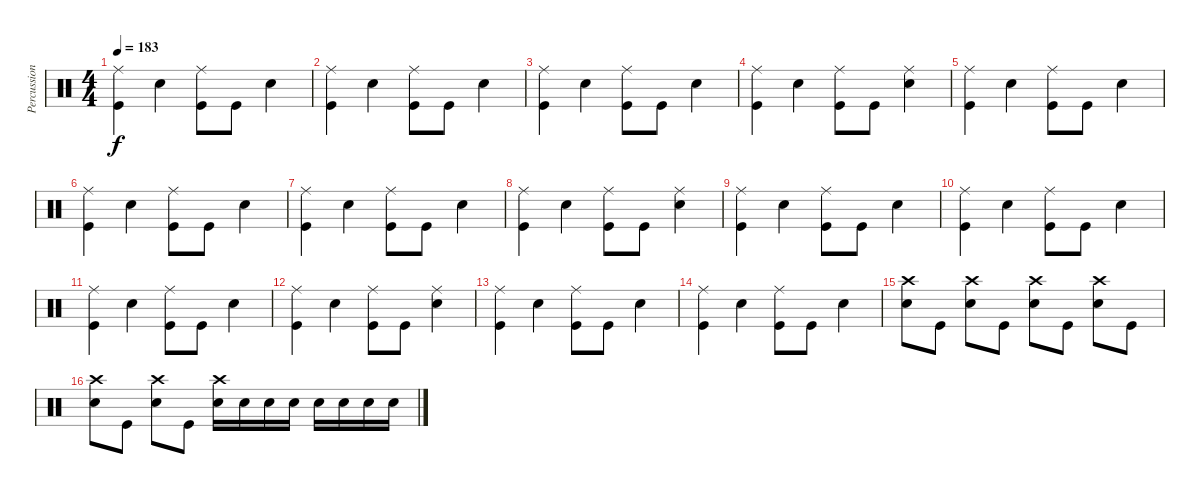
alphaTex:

\track ("Percussion" "Percussion") {instrument percussion}
\staff {score}
\articulation defaults
\ts (4 4)
\tempo 183
\clef neutral
\ks c
("Ride (middle)" "Kick (hit)").4{dy f} "Electric Snare (hit)".4 ("Ride (middle)" "Kick (hit)").8 "Kick (hit)".8 "Electric Snare (hit)".4 |
("Ride (middle)" "Kick (hit)").4 "Electric Snare (hit)".4 ("Ride (middle)" "Kick (hit)").8 "Kick (hit)".8 "Electric Snare (hit)".4 |
("Ride (middle)" "Kick (hit)").4 "Electric Snare (hit)".4 ("Ride (middle)" "Kick (hit)").8 "Kick (hit)".8 "Electric Snare (hit)".4 |
("Ride (middle)" "Kick (hit)").4 "Electric Snare (hit)".4 ("Ride (middle)" "Kick (hit)").8 "Kick (hit)".8 ("Ride (middle)" "Electric Snare (hit)").4 |
("Ride (middle)" "Kick (hit)").4 "Electric Snare (hit)".4 ("Ride (middle)" "Kick (hit)").8 "Kick (hit)".8 "Electric Snare (hit)".4 |
("Ride (middle)" "Kick (hit)").4 "Electric Snare (hit)".4 ("Ride (middle)" "Kick (hit)").8 "Kick (hit)".8 "Electric Snare (hit)".4 |
("Ride (middle)" "Kick (hit)").4 "Electric Snare (hit)".4 ("Ride (middle)" "Kick (hit)").8 "Kick (hit)".8 "Electric Snare (hit)".4 |
("Ride (middle)" "Kick (hit)").4 "Electric Snare (hit)".4 ("Ride (middle)" "Kick (hit)").8 "Kick (hit)".8 ("Ride (middle)" "Electric Snare (hit)").4 |
("Ride (middle)" "Kick (hit)").4 "Electric Snare (hit)".4 ("Ride (middle)" "Kick (hit)").8 "Kick (hit)".8 "Electric Snare (hit)".4 |
("Ride (middle)" "Kick (hit)").4 "Electric Snare (hit)".4 ("Ride (middle)" "Kick (hit)").8 "Kick (hit)".8 "Electric Snare (hit)".4 |
("Ride (middle)" "Kick (hit)").4 "Electric Snare (hit)".4 ("Ride (middle)" "Kick (hit)").8 "Kick (hit)".8 "Electric Snare (hit)".4 |
("Ride (middle)" "Kick (hit)").4 "Electric Snare (hit)".4 ("Ride (middle)" "Kick (hit)").8 "Kick (hit)".8 ("Ride (middle)" "Electric Snare (hit)").4 |
("Ride (middle)" "Kick (hit)").4 "Electric Snare (hit)".4 ("Ride (middle)" "Kick (hit)").8 "Kick (hit)".8 "Electric Snare (hit)".4 |
("Ride (middle)" "Kick (hit)").4 "Electric Snare (hit)".4 ("Ride (middle)" "Kick (hit)").8 "Kick (hit)".8 "Electric Snare (hit)".4 |
("Crash high (hit)" "Electric Snare (hit)").8 "Kick (hit)".8 ("Crash high (hit)" "Electric Snare (hit)").8 "Kick (hit)".8 ("Crash high (hit)" "Electric Snare (hit)").8 "Kick (hit)".8 ("Crash high (hit)" "Electric Snare (hit)").8 "Kick (hit)".8 |
("Crash high (hit)" "Electric Snare (hit)").8 "Kick (hit)".8 ("Crash high (hit)" "Electric Snare (hit)").8 "Kick (hit)".8 ("Crash high (hit)" "Electric Snare (hit)").16 "Electric Snare (hit)".16 "Electric Snare (hit)".16 "Electric Snare (hit)".16 "Electric Snare (hit)".16 "Electric Snare (hit)".16 "Electric Snare (hit)".16 "Electric Snare (hit)".16
